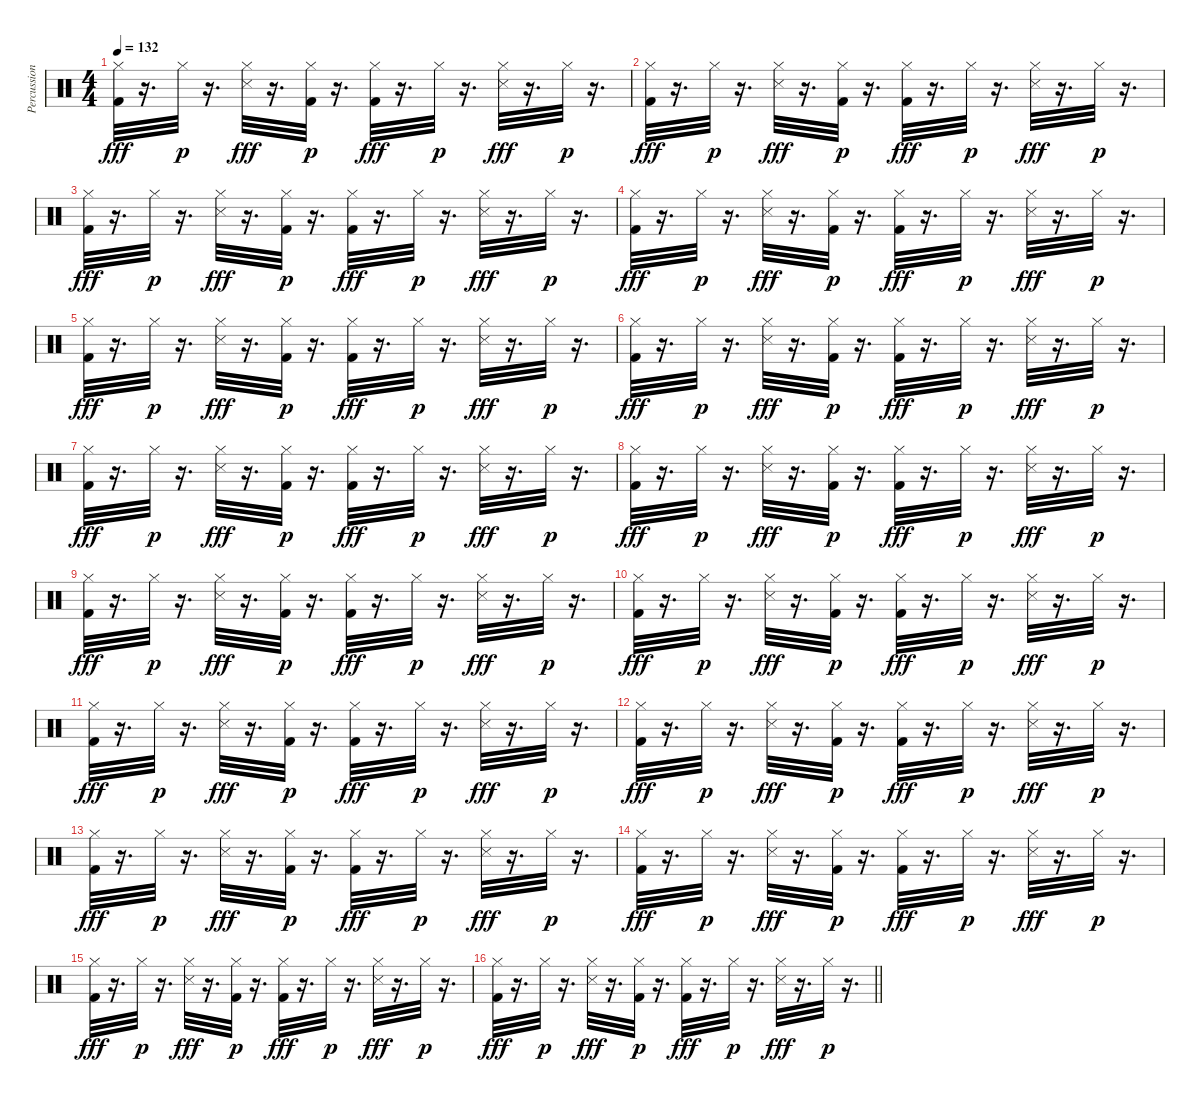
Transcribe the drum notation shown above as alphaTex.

\track ("Percussion" "Percussion") {instrument percussion}
\staff {score}
\articulation defaults
\ts (4 4)
\tempo 132
\clef neutral
\ks c
("Kick (hit) 2" "Hi-Hat (closed)").32{dy fff} r.16{d} "Hi-Hat (closed)".32{dy p} r.16{d} ("Snare (side stick) 3" "Hi-Hat (closed)").32{dy fff} r.16{d} ("Kick (hit) 2" "Hi-Hat (closed)").32{dy p} r.16{d} ("Kick (hit) 2" "Hi-Hat (closed)").32{dy fff} r.16{d} "Hi-Hat (closed)".32{dy p} r.16{d} ("Hi-Hat (closed)" "Snare (side stick) 3").32{dy fff} r.16{d} "Hi-Hat (closed)".32{dy p} r.16{d} |
("Kick (hit) 2" "Hi-Hat (closed)").32{dy fff} r.16{d} "Hi-Hat (closed)".32{dy p} r.16{d} ("Snare (side stick) 3" "Hi-Hat (closed)").32{dy fff} r.16{d} ("Kick (hit) 2" "Hi-Hat (closed)").32{dy p} r.16{d} ("Kick (hit) 2" "Hi-Hat (closed)").32{dy fff} r.16{d} "Hi-Hat (closed)".32{dy p} r.16{d} ("Hi-Hat (closed)" "Snare (side stick) 3").32{dy fff} r.16{d} "Hi-Hat (closed)".32{dy p} r.16{d} |
("Kick (hit) 2" "Hi-Hat (closed)").32{dy fff} r.16{d} "Hi-Hat (closed)".32{dy p} r.16{d} ("Snare (side stick) 3" "Hi-Hat (closed)").32{dy fff} r.16{d} ("Kick (hit) 2" "Hi-Hat (closed)").32{dy p} r.16{d} ("Kick (hit) 2" "Hi-Hat (closed)").32{dy fff} r.16{d} "Hi-Hat (closed)".32{dy p} r.16{d} ("Snare (side stick) 3" "Hi-Hat (closed)").32{dy fff} r.16{d} "Hi-Hat (closed)".32{dy p} r.16{d} |
("Kick (hit) 2" "Hi-Hat (closed)").32{dy fff} r.16{d} "Hi-Hat (closed)".32{dy p} r.16{d} ("Snare (side stick) 3" "Hi-Hat (closed)").32{dy fff} r.16{d} ("Kick (hit) 2" "Hi-Hat (closed)").32{dy p} r.16{d} ("Kick (hit) 2" "Hi-Hat (closed)").32{dy fff} r.16{d} "Hi-Hat (closed)".32{dy p} r.16{d} ("Hi-Hat (closed)" "Snare (side stick) 3").32{dy fff} r.16{d} "Hi-Hat (closed)".32{dy p} r.16{d} |
("Kick (hit) 2" "Hi-Hat (closed)").32{dy fff} r.16{d} "Hi-Hat (closed)".32{dy p} r.16{d} ("Hi-Hat (closed)" "Snare (side stick) 3").32{dy fff} r.16{d} ("Kick (hit) 2" "Hi-Hat (closed)").32{dy p} r.16{d} ("Kick (hit) 2" "Hi-Hat (closed)").32{dy fff} r.16{d} "Hi-Hat (closed)".32{dy p} r.16{d} ("Snare (side stick) 3" "Hi-Hat (closed)").32{dy fff} r.16{d} "Hi-Hat (closed)".32{dy p} r.16{d} |
("Kick (hit) 2" "Hi-Hat (closed)").32{dy fff} r.16{d} "Hi-Hat (closed)".32{dy p} r.16{d} ("Snare (side stick) 3" "Hi-Hat (closed)").32{dy fff} r.16{d} ("Kick (hit) 2" "Hi-Hat (closed)").32{dy p} r.16{d} ("Kick (hit) 2" "Hi-Hat (closed)").32{dy fff} r.16{d} "Hi-Hat (closed)".32{dy p} r.16{d} ("Hi-Hat (closed)" "Snare (side stick) 3").32{dy fff} r.16{d} "Hi-Hat (closed)".32{dy p} r.16{d} |
("Kick (hit) 2" "Hi-Hat (closed)").32{dy fff} r.16{d} "Hi-Hat (closed)".32{dy p} r.16{d} ("Hi-Hat (closed)" "Snare (side stick) 3").32{dy fff} r.16{d} ("Kick (hit) 2" "Hi-Hat (closed)").32{dy p} r.16{d} ("Kick (hit) 2" "Hi-Hat (closed)").32{dy fff} r.16{d} "Hi-Hat (closed)".32{dy p} r.16{d} ("Snare (side stick) 3" "Hi-Hat (closed)").32{dy fff} r.16{d} "Hi-Hat (closed)".32{dy p} r.16{d} |
("Kick (hit) 2" "Hi-Hat (closed)").32{dy fff} r.16{d} "Hi-Hat (closed)".32{dy p} r.16{d} ("Snare (side stick) 3" "Hi-Hat (closed)").32{dy fff} r.16{d} ("Kick (hit) 2" "Hi-Hat (closed)").32{dy p} r.16{d} ("Kick (hit) 2" "Hi-Hat (closed)").32{dy fff} r.16{d} "Hi-Hat (closed)".32{dy p} r.16{d} ("Hi-Hat (closed)" "Snare (side stick) 3").32{dy fff} r.16{d} "Hi-Hat (closed)".32{dy p} r.16{d} |
("Kick (hit) 2" "Hi-Hat (closed)").32{dy fff} r.16{d} "Hi-Hat (closed)".32{dy p} r.16{d} ("Hi-Hat (closed)" "Snare (side stick) 3").32{dy fff} r.16{d} ("Kick (hit) 2" "Hi-Hat (closed)").32{dy p} r.16{d} ("Kick (hit) 2" "Hi-Hat (closed)").32{dy fff} r.16{d} "Hi-Hat (closed)".32{dy p} r.16{d} ("Snare (side stick) 3" "Hi-Hat (closed)").32{dy fff} r.16{d} "Hi-Hat (closed)".32{dy p} r.16{d} |
("Kick (hit) 2" "Hi-Hat (closed)").32{dy fff} r.16{d} "Hi-Hat (closed)".32{dy p} r.16{d} ("Hi-Hat (closed)" "Snare (side stick) 3").32{dy fff} r.16{d} ("Kick (hit) 2" "Hi-Hat (closed)").32{dy p} r.16{d} ("Kick (hit) 2" "Hi-Hat (closed)").32{dy fff} r.16{d} "Hi-Hat (closed)".32{dy p} r.16{d} ("Snare (side stick) 3" "Hi-Hat (closed)").32{dy fff} r.16{d} "Hi-Hat (closed)".32{dy p} r.16{d} |
("Kick (hit) 2" "Hi-Hat (closed)").32{dy fff} r.16{d} "Hi-Hat (closed)".32{dy p} r.16{d} ("Snare (side stick) 3" "Hi-Hat (closed)").32{dy fff} r.16{d} ("Kick (hit) 2" "Hi-Hat (closed)").32{dy p} r.16{d} ("Kick (hit) 2" "Hi-Hat (closed)").32{dy fff} r.16{d} "Hi-Hat (closed)".32{dy p} r.16{d} ("Hi-Hat (closed)" "Snare (side stick) 3").32{dy fff} r.16{d} "Hi-Hat (closed)".32{dy p} r.16{d} |
("Kick (hit) 2" "Hi-Hat (closed)").32{dy fff} r.16{d} "Hi-Hat (closed)".32{dy p} r.16{d} ("Snare (side stick) 3" "Hi-Hat (closed)").32{dy fff} r.16{d} ("Kick (hit) 2" "Hi-Hat (closed)").32{dy p} r.16{d} ("Kick (hit) 2" "Hi-Hat (closed)").32{dy fff} r.16{d} "Hi-Hat (closed)".32{dy p} r.16{d} ("Snare (side stick) 3" "Hi-Hat (closed)").32{dy fff} r.16{d} "Hi-Hat (closed)".32{dy p} r.16{d} |
("Kick (hit) 2" "Hi-Hat (closed)").32{dy fff} r.16{d} "Hi-Hat (closed)".32{dy p} r.16{d} ("Hi-Hat (closed)" "Snare (side stick) 3").32{dy fff} r.16{d} ("Kick (hit) 2" "Hi-Hat (closed)").32{dy p} r.16{d} ("Kick (hit) 2" "Hi-Hat (closed)").32{dy fff} r.16{d} "Hi-Hat (closed)".32{dy p} r.16{d} ("Hi-Hat (closed)" "Snare (side stick) 3").32{dy fff} r.16{d} "Hi-Hat (closed)".32{dy p} r.16{d} |
("Kick (hit) 2" "Hi-Hat (closed)").32{dy fff} r.16{d} "Hi-Hat (closed)".32{dy p} r.16{d} ("Snare (side stick) 3" "Hi-Hat (closed)").32{dy fff} r.16{d} ("Kick (hit) 2" "Hi-Hat (closed)").32{dy p} r.16{d} ("Kick (hit) 2" "Hi-Hat (closed)").32{dy fff} r.16{d} "Hi-Hat (closed)".32{dy p} r.16{d} ("Hi-Hat (closed)" "Snare (side stick) 3").32{dy fff} r.16{d} "Hi-Hat (closed)".32{dy p} r.16{d} |
("Kick (hit) 2" "Hi-Hat (closed)").32{dy fff} r.16{d} "Hi-Hat (closed)".32{dy p} r.16{d} ("Hi-Hat (closed)" "Snare (side stick) 3").32{dy fff} r.16{d} ("Kick (hit) 2" "Hi-Hat (closed)").32{dy p} r.16{d} ("Kick (hit) 2" "Hi-Hat (closed)").32{dy fff} r.16{d} "Hi-Hat (closed)".32{dy p} r.16{d} ("Hi-Hat (closed)" "Snare (side stick) 3").32{dy fff} r.16{d} "Hi-Hat (closed)".32{dy p} r.16{d} |
\barLineRight lightlight
("Kick (hit) 2" "Hi-Hat (closed)").32{dy fff} r.16{d} "Hi-Hat (closed)".32{dy p} r.16{d} ("Snare (side stick) 3" "Hi-Hat (closed)").32{dy fff} r.16{d} ("Kick (hit) 2" "Hi-Hat (closed)").32{dy p} r.16{d} ("Kick (hit) 2" "Hi-Hat (closed)").32{dy fff} r.16{d} "Hi-Hat (closed)".32{dy p} r.16{d} ("Hi-Hat (closed)" "Snare (side stick) 3").32{dy fff} r.16{d} "Hi-Hat (closed)".32{dy p} r.16{d}
